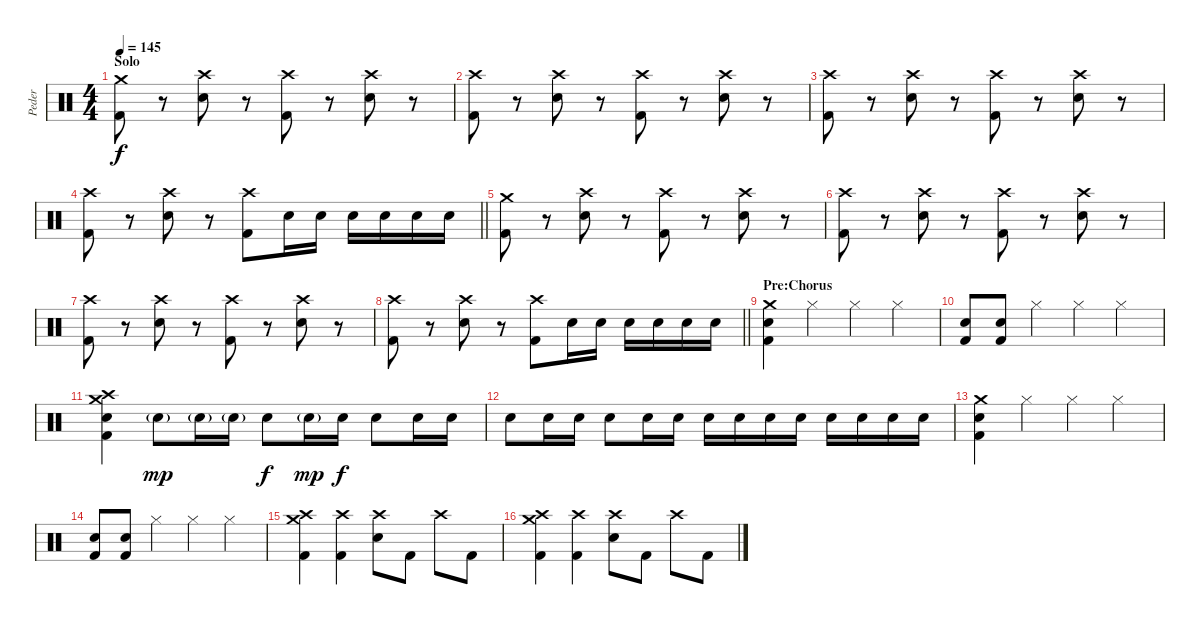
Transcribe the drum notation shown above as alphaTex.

\track ("Peder" "Peder") {instrument percussion}
\staff {score}
\articulation defaults
\ts (4 4)
\section ("" "Solo")
\tempo 145
\clef neutral
\ks c
("Crash medium (hit)" "Kick (hit) 2").8{dy f} r.8 ("Crash high (hit)" "Electric Snare (hit)").8 r.8 ("Crash high (hit)" "Kick (hit) 2").8 r.8 ("Crash high (hit)" "Electric Snare (hit)").8 r.8 |
("Crash high (hit)" "Kick (hit) 2").8 r.8 ("Crash high (hit)" "Electric Snare (hit)").8 r.8 ("Crash high (hit)" "Kick (hit) 2").8 r.8 ("Crash high (hit)" "Electric Snare (hit)").8 r.8 |
("Crash high (hit)" "Kick (hit) 2").8 r.8 ("Crash high (hit)" "Electric Snare (hit)").8 r.8 ("Crash high (hit)" "Kick (hit) 2").8 r.8 ("Crash high (hit)" "Electric Snare (hit)").8 r.8 |
\barLineRight lightlight
("Crash high (hit)" "Kick (hit) 2").8 r.8 ("Crash high (hit)" "Electric Snare (hit)").8 r.8 ("Crash high (hit)" "Kick (hit) 2").8 "Electric Snare (hit)".16 "Electric Snare (hit)".16 "Electric Snare (hit)".16 "Electric Snare (hit)".16 "Electric Snare (hit)".16 "Electric Snare (hit)".16 |
("Crash medium (hit)" "Kick (hit) 2").8 r.8 ("Crash high (hit)" "Electric Snare (hit)").8 r.8 ("Crash high (hit)" "Kick (hit) 2").8 r.8 ("Crash high (hit)" "Electric Snare (hit)").8 r.8 |
("Crash high (hit)" "Kick (hit) 2").8 r.8 ("Crash high (hit)" "Electric Snare (hit)").8 r.8 ("Crash high (hit)" "Kick (hit) 2").8 r.8 ("Crash high (hit)" "Electric Snare (hit)").8 r.8 |
("Crash high (hit)" "Kick (hit) 2").8 r.8 ("Crash high (hit)" "Electric Snare (hit)").8 r.8 ("Crash high (hit)" "Kick (hit) 2").8 r.8 ("Crash high (hit)" "Electric Snare (hit)").8 r.8 |
\barLineRight lightlight
("Crash high (hit)" "Kick (hit) 2").8 r.8 ("Crash high (hit)" "Electric Snare (hit)").8 r.8 ("Crash high (hit)" "Kick (hit) 2").8 "Electric Snare (hit)".16 "Electric Snare (hit)".16 "Electric Snare (hit)".16 "Electric Snare (hit)".16 "Electric Snare (hit)".16 "Electric Snare (hit)".16 |
\section ("" "Pre:Chorus")
("Crash medium (hit)" "Electric Snare (hit)" "Kick (hit) 2").4 "Hi-Hat (closed)".4 "Hi-Hat (closed)".4 "Hi-Hat (closed)".4 |
("Electric Snare (hit)" "Kick (hit) 2").8 ("Electric Snare (hit)" "Kick (hit) 2").8 "Hi-Hat (closed)".4 "Hi-Hat (closed)".4 "Hi-Hat (closed)".4 |
("Crash medium (hit)" "Crash high (hit)" "Electric Snare (hit)" "Kick (hit) 2").4 "Electric Snare (hit)"{g}.8{dy mp} "Electric Snare (hit)"{g}.16 "Electric Snare (hit)"{g}.16 "Electric Snare (hit)".8{dy f} "Electric Snare (hit)"{g}.16{dy mp} "Electric Snare (hit)".16{dy f} "Electric Snare (hit)".8 "Electric Snare (hit)".16 "Electric Snare (hit)".16 |
"Electric Snare (hit)".8 "Electric Snare (hit)".16 "Electric Snare (hit)".16 "Electric Snare (hit)".8 "Electric Snare (hit)".16 "Electric Snare (hit)".16 "Electric Snare (hit)".16 "Electric Snare (hit)".16 "Electric Snare (hit)".16 "Electric Snare (hit)".16 "Electric Snare (hit)".16 "Electric Snare (hit)".16 "Electric Snare (hit)".16 "Electric Snare (hit)".16 |
("Crash medium (hit)" "Electric Snare (hit)" "Kick (hit) 2").4 "Hi-Hat (closed)".4 "Hi-Hat (closed)".4 "Hi-Hat (closed)".4 |
("Electric Snare (hit)" "Kick (hit) 2").8 ("Electric Snare (hit)" "Kick (hit) 2").8 "Hi-Hat (closed)".4 "Hi-Hat (closed)".4 "Hi-Hat (closed)".4 |
("Crash medium (hit)" "Crash high (hit)" "Kick (hit) 2").4 ("Crash high (hit)" "Kick (hit) 2").4 ("Crash high (hit)" "Electric Snare (hit)").8 "Kick (hit) 2".8 "Crash high (hit)".8 "Kick (hit) 2".8 |
("Crash medium (hit)" "Crash high (hit)" "Kick (hit) 2").4 ("Crash high (hit)" "Kick (hit) 2").4 ("Crash high (hit)" "Electric Snare (hit)").8 "Kick (hit) 2".8 "Crash high (hit)".8 "Kick (hit) 2".8
